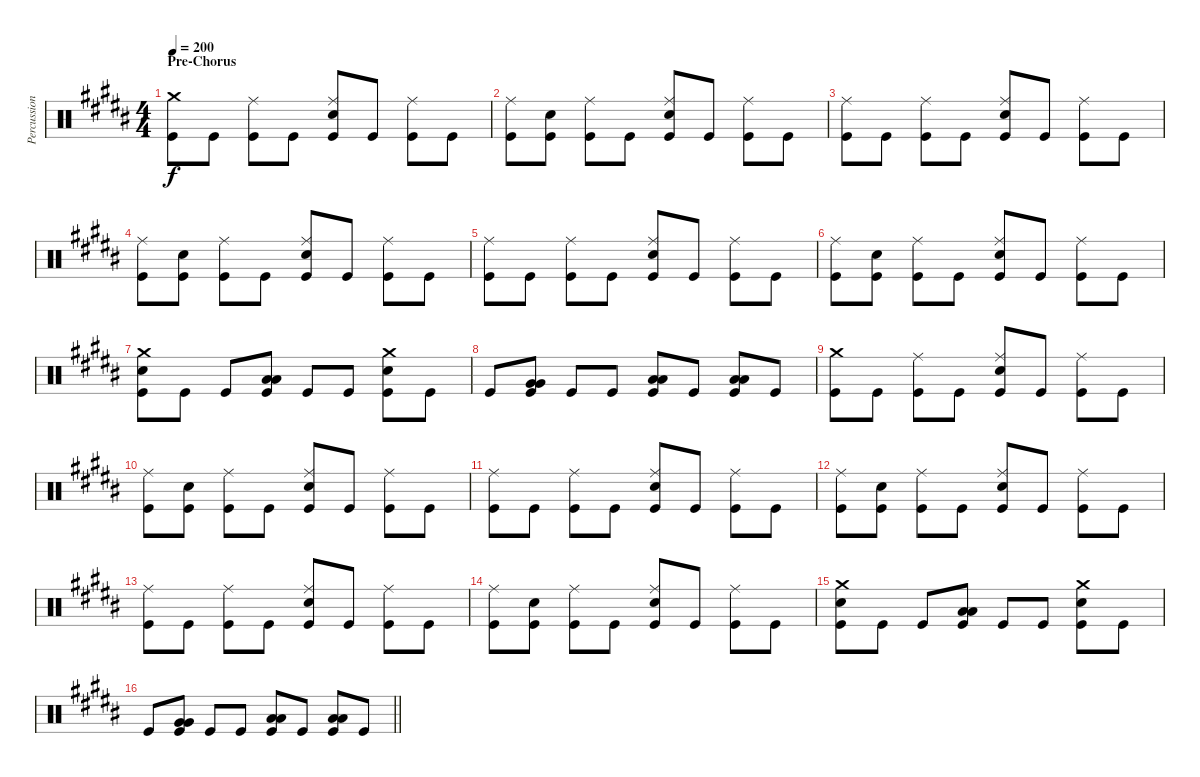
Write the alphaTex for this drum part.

\track ("Percussion" "Percussion") {instrument percussion}
\staff {score}
\articulation defaults
\ts (4 4)
\section ("" "Pre-Chorus")
\tempo 200
\clef neutral
\ks b
("Crash medium (hit)" "Kick (hit)").8{dy f} "Kick (hit)".8 ("Ride (middle)" "Kick (hit)").8 "Kick (hit)".8 ("Ride (middle)" "Electric Snare (hit)" "Kick (hit)").8 "Kick (hit)".8 ("Ride (middle)" "Kick (hit)").8 "Kick (hit)".8 |
("Ride (middle)" "Kick (hit)").8 ("Electric Snare (hit)" "Kick (hit)").8 ("Ride (middle)" "Kick (hit)").8 "Kick (hit)".8 ("Ride (middle)" "Electric Snare (hit)" "Kick (hit)").8 "Kick (hit)".8 ("Ride (middle)" "Kick (hit)").8 "Kick (hit)".8 |
("Ride (middle)" "Kick (hit)").8 "Kick (hit)".8 ("Ride (middle)" "Kick (hit)").8 "Kick (hit)".8 ("Ride (middle)" "Electric Snare (hit)" "Kick (hit)").8 "Kick (hit)".8 ("Ride (middle)" "Kick (hit)").8 "Kick (hit)".8 |
("Ride (middle)" "Kick (hit)").8 ("Electric Snare (hit)" "Kick (hit)").8 ("Ride (middle)" "Kick (hit)").8 "Kick (hit)".8 ("Ride (middle)" "Electric Snare (hit)" "Kick (hit)").8 "Kick (hit)".8 ("Ride (middle)" "Kick (hit)").8 "Kick (hit)".8 |
("Ride (middle)" "Kick (hit)").8 "Kick (hit)".8 ("Ride (middle)" "Kick (hit)").8 "Kick (hit)".8 ("Ride (middle)" "Electric Snare (hit)" "Kick (hit)").8 "Kick (hit)".8 ("Ride (middle)" "Kick (hit)").8 "Kick (hit)".8 |
("Ride (middle)" "Kick (hit)").8 ("Electric Snare (hit)" "Kick (hit)").8 ("Ride (middle)" "Kick (hit)").8 "Kick (hit)".8 ("Ride (middle)" "Electric Snare (hit)" "Kick (hit)").8 "Kick (hit)".8 ("Ride (middle)" "Kick (hit)").8 "Kick (hit)".8 |
("Crash medium (hit)" "Electric Snare (hit)" "Kick (hit)").8 "Kick (hit)".8 "Kick (hit)".8 ("Low Tom (hit)" "Low Tom (hit)" "Kick (hit)").8 "Kick (hit)".8 "Kick (hit)".8 ("Crash medium (hit)" "Electric Snare (hit)" "Kick (hit)").8 "Kick (hit)".8 |
"Kick (hit)".8 ("Very Low Tom (hit)" "Very Low Tom (hit)" "Kick (hit)").8 "Kick (hit)".8 "Kick (hit)".8 ("Low Floor Tom (hit)" "Low Floor Tom (hit)" "Kick (hit)").8 "Kick (hit)".8 ("Low Floor Tom (hit)" "Low Floor Tom (hit)" "Kick (hit)").8 "Kick (hit)".8 |
("Crash medium (hit)" "Kick (hit)").8 "Kick (hit)".8 ("Ride (middle)" "Kick (hit)").8 "Kick (hit)".8 ("Ride (middle)" "Electric Snare (hit)" "Kick (hit)").8 "Kick (hit)".8 ("Ride (middle)" "Kick (hit)").8 "Kick (hit)".8 |
("Ride (middle)" "Kick (hit)").8 ("Electric Snare (hit)" "Kick (hit)").8 ("Ride (middle)" "Kick (hit)").8 "Kick (hit)".8 ("Ride (middle)" "Electric Snare (hit)" "Kick (hit)").8 "Kick (hit)".8 ("Ride (middle)" "Kick (hit)").8 "Kick (hit)".8 |
("Ride (middle)" "Kick (hit)").8 "Kick (hit)".8 ("Ride (middle)" "Kick (hit)").8 "Kick (hit)".8 ("Ride (middle)" "Electric Snare (hit)" "Kick (hit)").8 "Kick (hit)".8 ("Ride (middle)" "Kick (hit)").8 "Kick (hit)".8 |
("Ride (middle)" "Kick (hit)").8 ("Electric Snare (hit)" "Kick (hit)").8 ("Ride (middle)" "Kick (hit)").8 "Kick (hit)".8 ("Ride (middle)" "Electric Snare (hit)" "Kick (hit)").8 "Kick (hit)".8 ("Ride (middle)" "Kick (hit)").8 "Kick (hit)".8 |
("Ride (middle)" "Kick (hit)").8 "Kick (hit)".8 ("Ride (middle)" "Kick (hit)").8 "Kick (hit)".8 ("Ride (middle)" "Electric Snare (hit)" "Kick (hit)").8 "Kick (hit)".8 ("Ride (middle)" "Kick (hit)").8 "Kick (hit)".8 |
("Ride (middle)" "Kick (hit)").8 ("Electric Snare (hit)" "Kick (hit)").8 ("Ride (middle)" "Kick (hit)").8 "Kick (hit)".8 ("Ride (middle)" "Electric Snare (hit)" "Kick (hit)").8 "Kick (hit)".8 ("Ride (middle)" "Kick (hit)").8 "Kick (hit)".8 |
("Crash medium (hit)" "Electric Snare (hit)" "Kick (hit)").8 "Kick (hit)".8 "Kick (hit)".8 ("Low Tom (hit)" "Low Tom (hit)" "Kick (hit)").8 "Kick (hit)".8 "Kick (hit)".8 ("Crash medium (hit)" "Electric Snare (hit)" "Kick (hit)").8 "Kick (hit)".8 |
\barLineRight lightlight "Kick (hit)".8
("Very Low Tom (hit)" "Very Low Tom (hit)" "Kick (hit)").8 "Kick (hit)".8 "Kick (hit)".8 ("Low Floor Tom (hit)" "Low Floor Tom (hit)" "Kick (hit)").8 "Kick (hit)".8 ("Low Floor Tom (hit)" "Low Floor Tom (hit)" "Kick (hit)").8 "Kick (hit)".8
